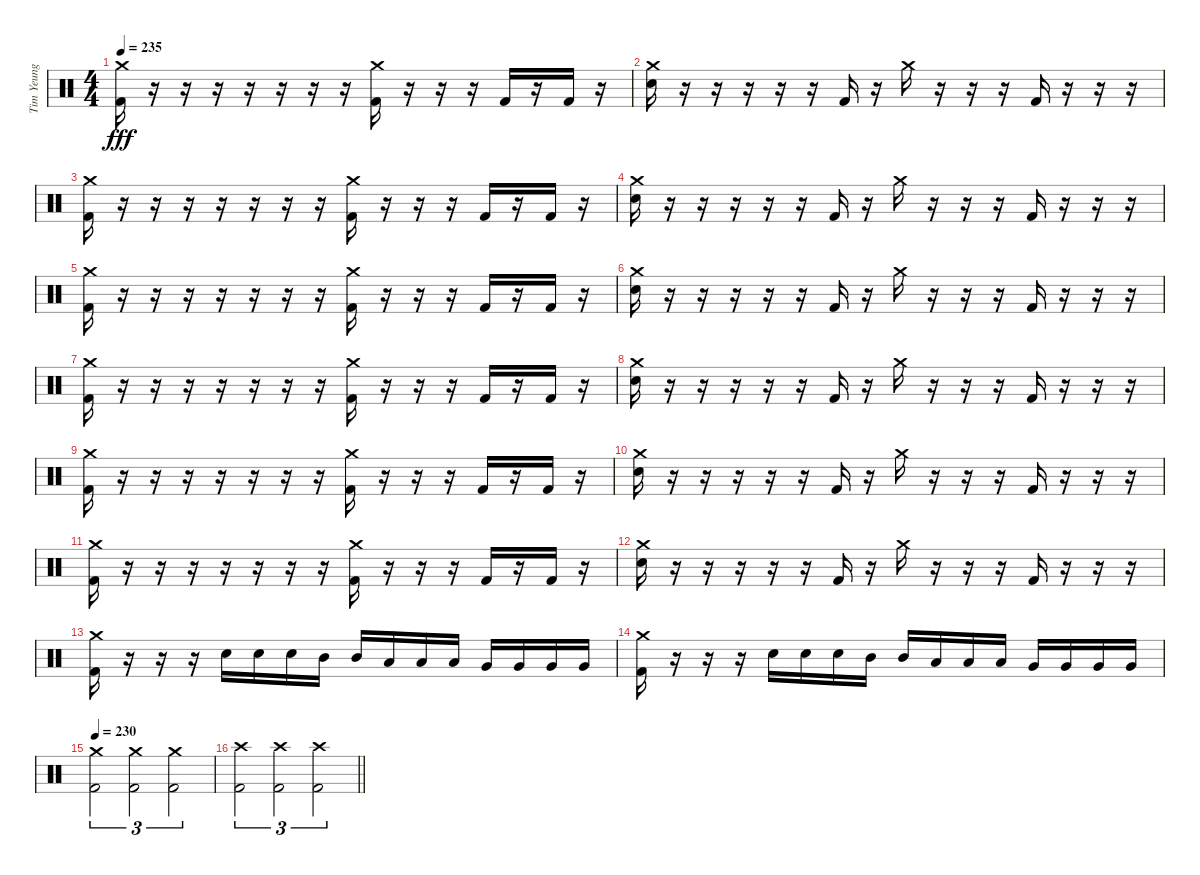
\track ("Tim Yeung" "Tim Yeung") {instrument percussion}
\staff {score}
\articulation defaults
\ts (4 4)
\tempo 235
\clef neutral
\ks c
("Crash medium (hit)" "Kick (hit) 2").16{dy fff} r.16 r.16 r.16 r.16 r.16 r.16 r.16 ("Crash medium (hit)" "Kick (hit) 2").16 r.16 r.16 r.16 "Kick (hit) 2".16 r.16 "Kick (hit) 2".16 r.16 |
("Crash medium (hit)" "Electric Snare (hit)").16 r.16 r.16 r.16 r.16 r.16 "Kick (hit) 2".16 r.16 "Crash medium (hit)".16 r.16 r.16 r.16 "Kick (hit) 2".16 r.16 r.16 r.16 |
("Crash medium (hit)" "Kick (hit) 2").16 r.16 r.16 r.16 r.16 r.16 r.16 r.16 ("Crash medium (hit)" "Kick (hit) 2").16 r.16 r.16 r.16 "Kick (hit) 2".16 r.16 "Kick (hit) 2".16 r.16 |
("Crash medium (hit)" "Electric Snare (hit)").16 r.16 r.16 r.16 r.16 r.16 "Kick (hit) 2".16 r.16 "Crash medium (hit)".16 r.16 r.16 r.16 "Kick (hit) 2".16 r.16 r.16 r.16 |
("Crash medium (hit)" "Kick (hit) 2").16 r.16 r.16 r.16 r.16 r.16 r.16 r.16 ("Crash medium (hit)" "Kick (hit) 2").16 r.16 r.16 r.16 "Kick (hit) 2".16 r.16 "Kick (hit) 2".16 r.16 |
("Crash medium (hit)" "Electric Snare (hit)").16 r.16 r.16 r.16 r.16 r.16 "Kick (hit) 2".16 r.16 "Crash medium (hit)".16 r.16 r.16 r.16 "Kick (hit) 2".16 r.16 r.16 r.16 |
("Crash medium (hit)" "Kick (hit) 2").16 r.16 r.16 r.16 r.16 r.16 r.16 r.16 ("Crash medium (hit)" "Kick (hit) 2").16 r.16 r.16 r.16 "Kick (hit) 2".16 r.16 "Kick (hit) 2".16 r.16 |
("Crash medium (hit)" "Electric Snare (hit)").16 r.16 r.16 r.16 r.16 r.16 "Kick (hit) 2".16 r.16 "Crash medium (hit)".16 r.16 r.16 r.16 "Kick (hit) 2".16 r.16 r.16 r.16 |
("Crash medium (hit)" "Kick (hit) 2").16 r.16 r.16 r.16 r.16 r.16 r.16 r.16 ("Crash medium (hit)" "Kick (hit) 2").16 r.16 r.16 r.16 "Kick (hit) 2".16 r.16 "Kick (hit) 2".16 r.16 |
("Crash medium (hit)" "Electric Snare (hit)").16 r.16 r.16 r.16 r.16 r.16 "Kick (hit) 2".16 r.16 "Crash medium (hit)".16 r.16 r.16 r.16 "Kick (hit) 2".16 r.16 r.16 r.16 |
("Crash medium (hit)" "Kick (hit) 2").16 r.16 r.16 r.16 r.16 r.16 r.16 r.16 ("Crash medium (hit)" "Kick (hit) 2").16 r.16 r.16 r.16 "Kick (hit) 2".16 r.16 "Kick (hit) 2".16 r.16 |
("Crash medium (hit)" "Electric Snare (hit)").16 r.16 r.16 r.16 r.16 r.16 "Kick (hit) 2".16 r.16 "Crash medium (hit)".16 r.16 r.16 r.16 "Kick (hit) 2".16 r.16 r.16 r.16 |
("Crash medium (hit)" "Kick (hit) 2").16 r.16 r.16 r.16 "Electric Snare (hit)".16 "Electric Snare (hit)".16 "Electric Snare (hit)".16 "Mid Tom (hit)".16 "Mid Tom (hit)".16 "Low Tom (hit)".16 "Low Tom (hit)".16 "Low Tom (hit)".16 "Very Low Tom (hit)".16 "Very Low Tom (hit)".16 "Very Low Tom (hit)".16 "Very Low Tom (hit)".16 |
("Crash medium (hit)" "Kick (hit) 2").16 r.16 r.16 r.16 "Electric Snare (hit)".16 "Electric Snare (hit)".16 "Electric Snare (hit)".16 "Mid Tom (hit)".16 "Mid Tom (hit)".16 "Low Tom (hit)".16 "Low Tom (hit)".16 "Low Tom (hit)".16 "Very Low Tom (hit)".16 "Very Low Tom (hit)".16 "Very Low Tom (hit)".16 "Very Low Tom (hit)".16 |
\tempo 230
("Crash medium (hit)" "Kick (hit) 2").2{tu (3 2)} ("Crash medium (hit)" "Kick (hit) 2").2{tu (3 2)} ("Crash medium (hit)" "Kick (hit) 2").2{tu (3 2)} |
\barLineRight lightlight
("Crash high (hit)" "Kick (hit) 2").2{tu (3 2)} ("Crash high (hit)" "Kick (hit) 2").2{tu (3 2)} ("Crash high (hit)" "Kick (hit) 2").2{tu (3 2)}
